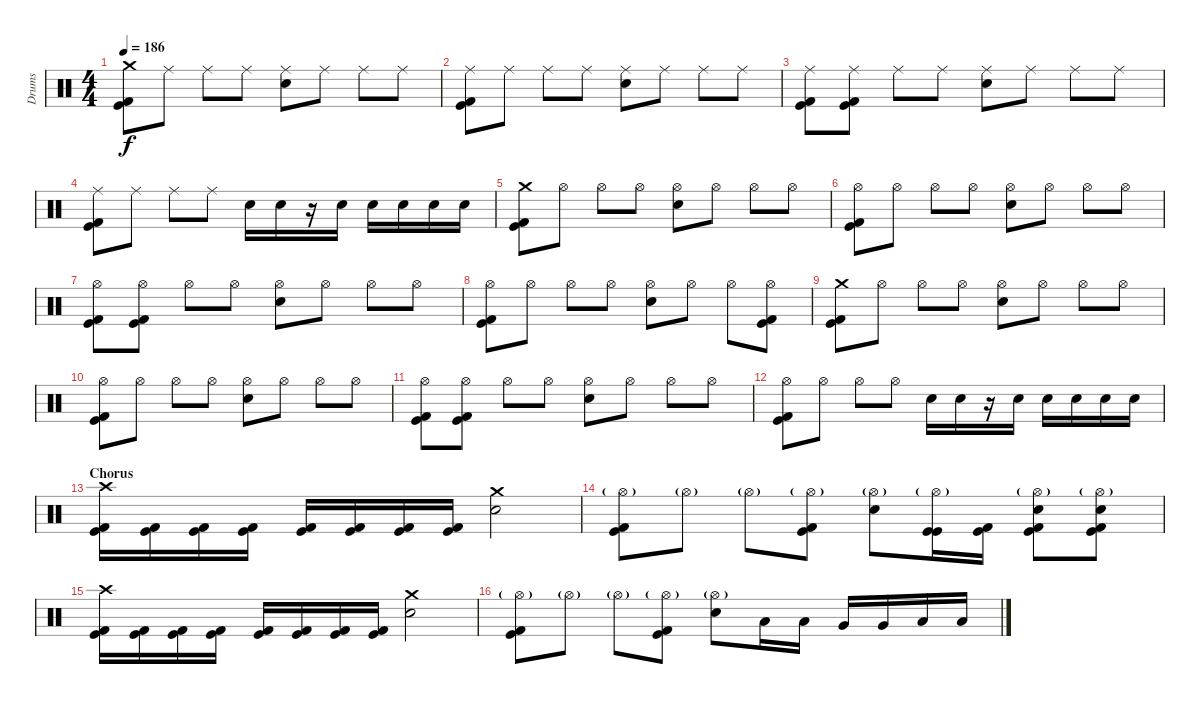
\track ("Drums" "Drums") {instrument percussion}
\staff {score}
\articulation defaults
\ts (4 4)
\tempo 186
\clef neutral
\ks c
("Crash medium (hit)" "Kick (hit)" "Kick (hit) 2").8{dy f} "Ride (middle)".8 "Ride (middle)".8 "Ride (middle)".8 ("Ride (middle)" "Electric Snare (hit)").8 "Ride (middle)".8 "Ride (middle)".8 "Ride (middle)".8 |
("Ride (middle)" "Kick (hit)" "Kick (hit) 2").8 "Ride (middle)".8 "Ride (middle)".8 "Ride (middle)".8 ("Ride (middle)" "Electric Snare (hit)").8 "Ride (middle)".8 "Ride (middle)".8 "Ride (middle)".8 |
("Ride (middle)" "Kick (hit)" "Kick (hit) 2").8 ("Ride (middle)" "Kick (hit)" "Kick (hit) 2").8 "Ride (middle)".8 "Ride (middle)".8 ("Ride (middle)" "Electric Snare (hit)").8 "Ride (middle)".8 "Ride (middle)".8 "Ride (middle)".8 |
("Ride (middle)" "Kick (hit)" "Kick (hit) 2").8 "Ride (middle)".8 "Ride (middle)".8 "Ride (middle)".8 "Electric Snare (hit)".16 "Electric Snare (hit)".16 r.16 "Electric Snare (hit)".16 "Electric Snare (hit)".16 "Electric Snare (hit)".16 "Electric Snare (hit)".16 "Electric Snare (hit)".16 |
("Crash medium (hit)" "Kick (hit)" "Kick (hit) 2").8 "Hi-Hat (open)".8 "Hi-Hat (open)".8 "Hi-Hat (open)".8 ("Hi-Hat (open)" "Electric Snare (hit)").8 "Hi-Hat (open)".8 "Hi-Hat (open)".8 "Hi-Hat (open)".8 |
("Hi-Hat (open)" "Kick (hit)" "Kick (hit) 2").8 "Hi-Hat (open)".8 "Hi-Hat (open)".8 "Hi-Hat (open)".8 ("Hi-Hat (open)" "Electric Snare (hit)").8 "Hi-Hat (open)".8 "Hi-Hat (open)".8 "Hi-Hat (open)".8 |
("Hi-Hat (open)" "Kick (hit)" "Kick (hit) 2").8 ("Hi-Hat (open)" "Kick (hit)" "Kick (hit) 2").8 "Hi-Hat (open)".8 "Hi-Hat (open)".8 ("Hi-Hat (open)" "Electric Snare (hit)").8 "Hi-Hat (open)".8 "Hi-Hat (open)".8 "Hi-Hat (open)".8 |
("Hi-Hat (open)" "Kick (hit)" "Kick (hit) 2").8 "Hi-Hat (open)".8 "Hi-Hat (open)".8 "Hi-Hat (open)".8 ("Hi-Hat (open)" "Electric Snare (hit)").8 "Hi-Hat (open)".8 "Hi-Hat (open)".8 ("Hi-Hat (open)" "Kick (hit)" "Kick (hit) 2").8 |
("Crash medium (hit)" "Kick (hit)" "Kick (hit) 2").8 "Hi-Hat (open)".8 "Hi-Hat (open)".8 "Hi-Hat (open)".8 ("Hi-Hat (open)" "Electric Snare (hit)").8 "Hi-Hat (open)".8 "Hi-Hat (open)".8 "Hi-Hat (open)".8 |
("Hi-Hat (open)" "Kick (hit)" "Kick (hit) 2").8 "Hi-Hat (open)".8 "Hi-Hat (open)".8 "Hi-Hat (open)".8 ("Hi-Hat (open)" "Electric Snare (hit)").8 "Hi-Hat (open)".8 "Hi-Hat (open)".8 "Hi-Hat (open)".8 |
("Hi-Hat (open)" "Kick (hit)" "Kick (hit) 2").8 ("Hi-Hat (open)" "Kick (hit)" "Kick (hit) 2").8 "Hi-Hat (open)".8 "Hi-Hat (open)".8 ("Hi-Hat (open)" "Electric Snare (hit)").8 "Hi-Hat (open)".8 "Hi-Hat (open)".8 "Hi-Hat (open)".8 |
("Hi-Hat (open)" "Kick (hit)" "Kick (hit) 2").8 "Hi-Hat (open)".8 "Hi-Hat (open)".8 "Hi-Hat (open)".8 "Electric Snare (hit)".16 "Electric Snare (hit)".16 r.16 "Electric Snare (hit)".16 "Electric Snare (hit)".16 "Electric Snare (hit)".16 "Electric Snare (hit)".16 "Electric Snare (hit)".16 |
\section ("" "Chorus")
("Crash high (hit)" "Kick (hit)" "Kick (hit) 2").16 ("Kick (hit)" "Kick (hit) 2").16 ("Kick (hit)" "Kick (hit) 2").16 ("Kick (hit)" "Kick (hit) 2").16 ("Kick (hit)" "Kick (hit) 2").16 ("Kick (hit)" "Kick (hit) 2").16 ("Kick (hit)" "Kick (hit) 2").16 ("Kick (hit)" "Kick (hit) 2").16 ("Crash medium (hit)" "Electric Snare (hit)").2 |
("Hi-Hat (open)"{g} "Kick (hit)" "Kick (hit) 2").8 "Hi-Hat (open)"{g}.8 "Hi-Hat (open)"{g}.8 ("Hi-Hat (open)"{g} "Kick (hit)" "Kick (hit) 2").8 ("Hi-Hat (open)"{g} "Electric Snare (hit)").8 ("Hi-Hat (open)"{g} "Kick (hit)" "Kick (hit)").16 ("Kick (hit)" "Kick (hit) 2").16 ("Hi-Hat (open)"{g} "Electric Snare (hit)" "Kick (hit)" "Kick (hit) 2").8 ("Hi-Hat (open)"{g} "Electric Snare (hit)" "Kick (hit)" "Kick (hit) 2").8 |
("Crash high (hit)" "Kick (hit)" "Kick (hit) 2").16 ("Kick (hit)" "Kick (hit) 2").16 ("Kick (hit)" "Kick (hit) 2").16 ("Kick (hit)" "Kick (hit) 2").16 ("Kick (hit)" "Kick (hit) 2").16 ("Kick (hit)" "Kick (hit) 2").16 ("Kick (hit)" "Kick (hit) 2").16 ("Kick (hit)" "Kick (hit) 2").16 ("Crash medium (hit)" "Electric Snare (hit)").2 |
("Hi-Hat (open)"{g} "Kick (hit)" "Kick (hit) 2").8 "Hi-Hat (open)"{g}.8 "Hi-Hat (open)"{g}.8 ("Hi-Hat (open)"{g} "Kick (hit)" "Kick (hit) 2").8 ("Hi-Hat (open)"{g} "Electric Snare (hit)").8 "Low Tom (hit)".16 "Low Tom (hit)".16 "Very Low Tom (hit)".16 "Very Low Tom (hit)".16 "Low Floor Tom (hit)".16 "Low Floor Tom (hit)".16
